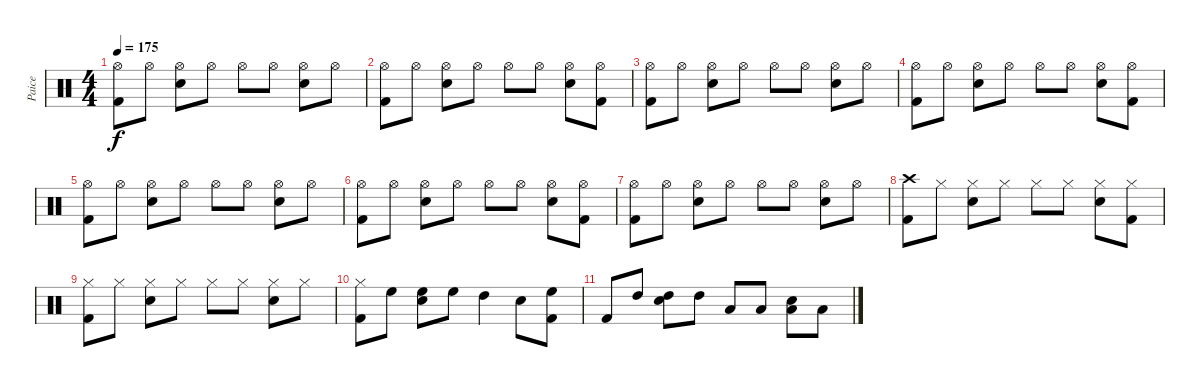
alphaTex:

\track ("Paice" "Paice") {instrument percussion}
\staff {score}
\articulation defaults
\ts (4 4)
\tempo 175
\clef neutral
\ks c
("Hi-Hat (open)" "Kick (hit) 2").8{dy f} "Hi-Hat (open)".8 ("Hi-Hat (open)" "Electric Snare (hit)").8 "Hi-Hat (open)".8 "Hi-Hat (open)".8 "Hi-Hat (open)".8 ("Hi-Hat (open)" "Electric Snare (hit)").8 "Hi-Hat (open)".8 |
("Hi-Hat (open)" "Kick (hit) 2").8 "Hi-Hat (open)".8 ("Hi-Hat (open)" "Electric Snare (hit)").8 "Hi-Hat (open)".8 "Hi-Hat (open)".8 "Hi-Hat (open)".8 ("Hi-Hat (open)" "Electric Snare (hit)").8 ("Hi-Hat (open)" "Kick (hit) 2").8 |
("Hi-Hat (open)" "Kick (hit) 2").8 "Hi-Hat (open)".8 ("Hi-Hat (open)" "Electric Snare (hit)").8 "Hi-Hat (open)".8 "Hi-Hat (open)".8 "Hi-Hat (open)".8 ("Hi-Hat (open)" "Electric Snare (hit)").8 "Hi-Hat (open)".8 |
("Hi-Hat (open)" "Kick (hit) 2").8 "Hi-Hat (open)".8 ("Hi-Hat (open)" "Electric Snare (hit)").8 "Hi-Hat (open)".8 "Hi-Hat (open)".8 "Hi-Hat (open)".8 ("Hi-Hat (open)" "Electric Snare (hit)").8 ("Hi-Hat (open)" "Kick (hit) 2").8 |
("Hi-Hat (open)" "Kick (hit) 2").8 "Hi-Hat (open)".8 ("Hi-Hat (open)" "Electric Snare (hit)").8 "Hi-Hat (open)".8 "Hi-Hat (open)".8 "Hi-Hat (open)".8 ("Hi-Hat (open)" "Electric Snare (hit)").8 "Hi-Hat (open)".8 |
("Hi-Hat (open)" "Kick (hit) 2").8 "Hi-Hat (open)".8 ("Hi-Hat (open)" "Electric Snare (hit)").8 "Hi-Hat (open)".8 "Hi-Hat (open)".8 "Hi-Hat (open)".8 ("Hi-Hat (open)" "Electric Snare (hit)").8 ("Hi-Hat (open)" "Kick (hit) 2").8 |
("Hi-Hat (open)" "Kick (hit) 2").8 "Hi-Hat (open)".8 ("Hi-Hat (open)" "Electric Snare (hit)").8 "Hi-Hat (open)".8 "Hi-Hat (open)".8 "Hi-Hat (open)".8 ("Hi-Hat (open)" "Electric Snare (hit)").8 "Hi-Hat (open)".8 |
("Crash high (hit)" "Kick (hit) 2").8 "Hi-Hat (closed)".8 ("Hi-Hat (closed)" "Electric Snare (hit)").8 "Hi-Hat (closed)".8 "Hi-Hat (closed)".8 "Hi-Hat (closed)".8 ("Hi-Hat (closed)" "Electric Snare (hit)").8 ("Hi-Hat (closed)" "Kick (hit) 2").8 |
("Hi-Hat (closed)" "Kick (hit) 2").8 "Hi-Hat (closed)".8 ("Hi-Hat (closed)" "Electric Snare (hit)").8 "Hi-Hat (closed)".8 "Hi-Hat (closed)".8 "Hi-Hat (closed)".8 ("Hi-Hat (closed)" "Electric Snare (hit)").8 "Hi-Hat (closed)".8 |
("Hi-Hat (closed)" "Kick (hit) 2").8 "High Floor Tom (hit)".8 ("Electric Snare (hit)" "High Floor Tom (hit)").8 "High Floor Tom (hit)".8 "High Tom (hit)".4 "Electric Snare (hit)".8 ("High Floor Tom (hit)" "Kick (hit) 2").8 |
"Kick (hit) 2".8 "High Tom (hit)".8 ("Electric Snare (hit)" "High Tom (hit)").8 "High Tom (hit)".8 "Low Tom (hit)".8 "Low Tom (hit)".8 ("Electric Snare (hit)" "Low Tom (hit)").8 "Low Tom (hit)".8
